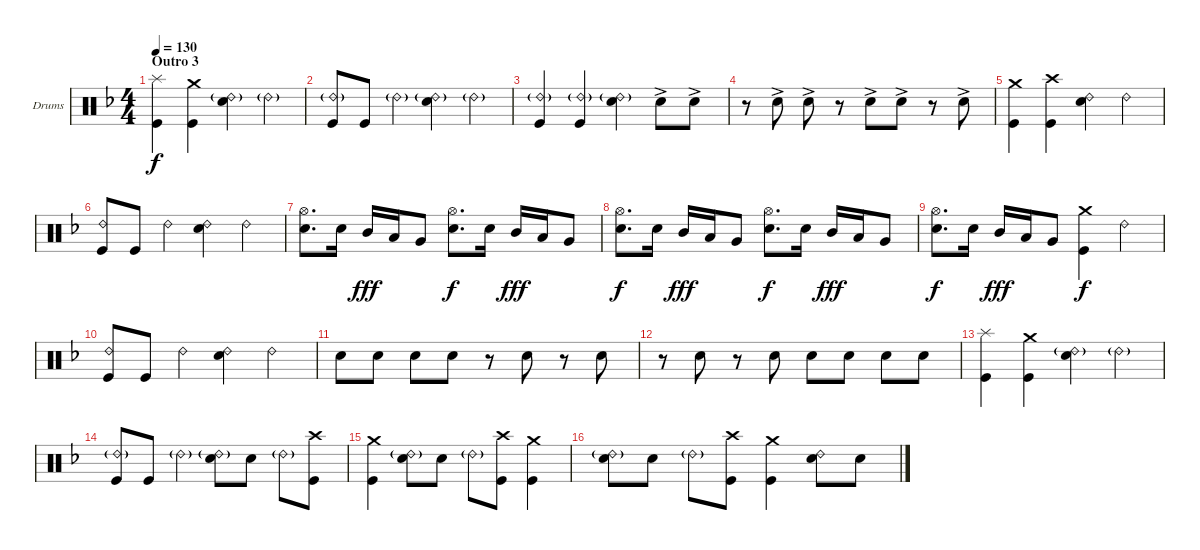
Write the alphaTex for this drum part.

\defaultSystemsLayout 4
\bracketExtendMode groupsimilarinstruments
\firstSystemTrackNameOrientation horizontal
\otherSystemsTrackNameOrientation horizontal
\track ("Drumkit" "Drums") {instrument percussion}
\staff {score}
\articulation defaults
\ts (4 4)
\section ("" "Outro 3")
\tempo 130
\clef neutral
\ks dminor
("Kick (hit)" "Splash (hit)").4{dy f} ("Crash medium (hit)" "Kick (hit)").4 ("Snare (hit) 2" "Ride (bell) 2"{g}).4 "Ride (bell) 2"{g}.4 |
("Ride (bell) 2"{g} "Kick (hit)").8 "Kick (hit)".8 "Ride (bell) 2"{g}.4 ("Ride (bell) 2"{g} "Snare (hit) 2").4 "Ride (bell) 2"{g}.4 |
("Ride (bell) 2"{g} "Kick (hit)").4 ("Ride (bell) 2"{g} "Kick (hit)").4 ("Ride (bell) 2"{g} "Snare (hit) 2").4 "Snare (hit) 2"{ac}.8 "Snare (hit) 2"{ac}.8 |
r.8 "Snare (hit) 2"{ac}.8 "Snare (hit) 2"{ac}.8 r.8 "Snare (hit) 2"{ac}.8 "Snare (hit) 2"{ac}.8 r.8 "Snare (hit) 2"{ac}.8 |
("Crash medium (hit)" "Kick (hit)").4 ("Kick (hit)" "Crash high (hit)").4 ("Ride (bell) 2" "Snare (hit) 2").4 "Ride (bell) 2".4 |
("Kick (hit)" "Ride (bell) 2").8 "Kick (hit)".8 "Ride (bell) 2".4 ("Snare (hit) 2" "Ride (bell) 2").4 "Ride (bell) 2".4 |
("Snare (hit) 2" "Hi-Hat (open)").8{d} "Snare (hit) 2".16 "Mid Tom (hit)".16{dy fff} "Low Tom (hit)".16 "Very Low Tom (hit)".8 ("Snare (hit) 2" "Hi-Hat (open)").8{d dy f} "Snare (hit) 2".16 "Mid Tom (hit)".16{dy fff} "Low Tom (hit)".16 "Very Low Tom (hit)".8 |
("Snare (hit) 2" "Hi-Hat (open)").8{d dy f} "Snare (hit) 2".16 "Mid Tom (hit)".16{dy fff} "Low Tom (hit)".16 "Very Low Tom (hit)".8 ("Snare (hit) 2" "Hi-Hat (open)").8{d dy f} "Snare (hit) 2".16 "Mid Tom (hit)".16{dy fff} "Low Tom (hit)".16 "Very Low Tom (hit)".8 |
("Snare (hit) 2" "Hi-Hat (open)").8{d dy f} "Snare (hit) 2".16 "Mid Tom (hit)".16{dy fff} "Low Tom (hit)".16 "Very Low Tom (hit)".8 ("Kick (hit)" "Crash medium (hit)").4{dy f} "Ride (bell) 2".4 |
("Kick (hit)" "Ride (bell) 2").8 "Kick (hit)".8 "Ride (bell) 2".4 ("Ride (bell) 2" "Snare (hit) 2").4 "Ride (bell) 2".4 |
"Snare (hit) 2".8 "Snare (hit) 2".8 "Snare (hit) 2".8 "Snare (hit) 2".8 r.8 "Snare (hit) 2".8 r.8 "Snare (hit) 2".8 |
r.8 "Snare (hit) 2".8 r.8 "Snare (hit) 2".8 "Snare (hit) 2".8 "Snare (hit) 2".8 "Snare (hit) 2".8 "Snare (hit) 2".8 |
("Kick (hit)" "Splash (hit)").4 ("Crash medium (hit)" "Kick (hit)").4 ("Snare (hit) 2" "Ride (bell) 2"{g}).4 "Ride (bell) 2"{g}.4 |
("Ride (bell) 2"{g} "Kick (hit)").8 "Kick (hit)".8 "Ride (bell) 2"{g}.4 ("Ride (bell) 2"{g} "Snare (hit) 2").8 "Snare (hit) 2".8 "Ride (bell) 2"{g}.8 ("Kick (hit)" "Crash high (hit)").8 |
("Crash medium (hit)" "Kick (hit)").4 ("Snare (hit) 2" "Ride (bell) 2"{g}).8 "Snare (hit) 2".8 "Ride (bell) 2"{g}.8 ("Kick (hit)" "Crash high (hit)").8 ("Crash medium (hit)" "Kick (hit)").4 |
("Snare (hit) 2" "Ride (bell) 2"{g}).8 "Snare (hit) 2".8 "Ride (bell) 2"{g}.8 ("Kick (hit)" "Crash high (hit)").8 ("Crash medium (hit)" "Kick (hit)").4 ("Ride (bell) 2" "Snare (hit) 2").8 "Snare (hit) 2".8
